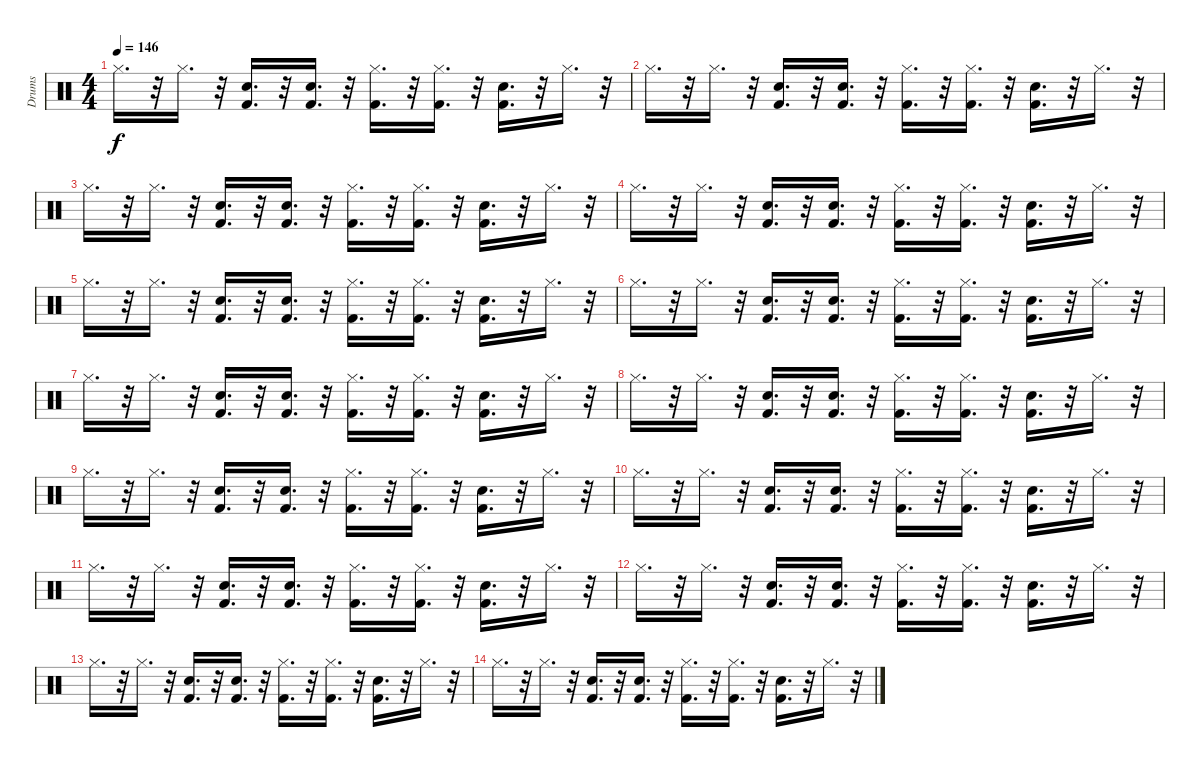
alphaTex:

\track ("Drums " "Drums ") {instrument percussion}
\staff {score}
\articulation defaults
\ts (4 4)
\tempo 146
\clef neutral
\ks c "Hi-Hat (closed)".16{d dy f}
r.32 "Hi-Hat (closed)".16{d} r.32 ("Snare (hit) 2" "Kick (hit) 2").16{d} r.32 ("Snare (hit) 2" "Kick (hit) 2").16{d} r.32 ("Kick (hit) 2" "Hi-Hat (closed)").16{d} r.32 ("Kick (hit) 2" "Hi-Hat (closed)").16{d} r.32 ("Snare (hit) 2" "Kick (hit) 2").16{d} r.32 "Hi-Hat (closed)".16{d} r.32 |
"Hi-Hat (closed)".16{d} r.32 "Hi-Hat (closed)".16{d} r.32 ("Snare (hit) 2" "Kick (hit) 2").16{d} r.32 ("Snare (hit) 2" "Kick (hit) 2").16{d} r.32 ("Kick (hit) 2" "Hi-Hat (closed)").16{d} r.32 ("Kick (hit) 2" "Hi-Hat (closed)").16{d} r.32 ("Snare (hit) 2" "Kick (hit) 2").16{d} r.32 "Hi-Hat (closed)".16{d} r.32 |
"Hi-Hat (closed)".16{d} r.32 "Hi-Hat (closed)".16{d} r.32 ("Snare (hit) 2" "Kick (hit) 2").16{d} r.32 ("Snare (hit) 2" "Kick (hit) 2").16{d} r.32 ("Kick (hit) 2" "Hi-Hat (closed)").16{d} r.32 ("Kick (hit) 2" "Hi-Hat (closed)").16{d} r.32 ("Snare (hit) 2" "Kick (hit) 2").16{d} r.32 "Hi-Hat (closed)".16{d} r.32 |
"Hi-Hat (closed)".16{d} r.32 "Hi-Hat (closed)".16{d} r.32 ("Snare (hit) 2" "Kick (hit) 2").16{d} r.32 ("Snare (hit) 2" "Kick (hit) 2").16{d} r.32 ("Kick (hit) 2" "Hi-Hat (closed)").16{d} r.32 ("Kick (hit) 2" "Hi-Hat (closed)").16{d} r.32 ("Snare (hit) 2" "Kick (hit) 2").16{d} r.32 "Hi-Hat (closed)".16{d} r.32 |
"Hi-Hat (closed)".16{d} r.32 "Hi-Hat (closed)".16{d} r.32 ("Snare (hit) 2" "Kick (hit) 2").16{d} r.32 ("Snare (hit) 2" "Kick (hit) 2").16{d} r.32 ("Kick (hit) 2" "Hi-Hat (closed)").16{d} r.32 ("Kick (hit) 2" "Hi-Hat (closed)").16{d} r.32 ("Snare (hit) 2" "Kick (hit) 2").16{d} r.32 "Hi-Hat (closed)".16{d} r.32 |
"Hi-Hat (closed)".16{d} r.32 "Hi-Hat (closed)".16{d} r.32 ("Snare (hit) 2" "Kick (hit) 2").16{d} r.32 ("Snare (hit) 2" "Kick (hit) 2").16{d} r.32 ("Kick (hit) 2" "Hi-Hat (closed)").16{d} r.32 ("Kick (hit) 2" "Hi-Hat (closed)").16{d} r.32 ("Snare (hit) 2" "Kick (hit) 2").16{d} r.32 "Hi-Hat (closed)".16{d} r.32 |
"Hi-Hat (closed)".16{d} r.32 "Hi-Hat (closed)".16{d} r.32 ("Snare (hit) 2" "Kick (hit) 2").16{d} r.32 ("Snare (hit) 2" "Kick (hit) 2").16{d} r.32 ("Kick (hit) 2" "Hi-Hat (closed)").16{d} r.32 ("Kick (hit) 2" "Hi-Hat (closed)").16{d} r.32 ("Snare (hit) 2" "Kick (hit) 2").16{d} r.32 "Hi-Hat (closed)".16{d} r.32 |
"Hi-Hat (closed)".16{d} r.32 "Hi-Hat (closed)".16{d} r.32 ("Snare (hit) 2" "Kick (hit) 2").16{d} r.32 ("Snare (hit) 2" "Kick (hit) 2").16{d} r.32 ("Kick (hit) 2" "Hi-Hat (closed)").16{d} r.32 ("Kick (hit) 2" "Hi-Hat (closed)").16{d} r.32 ("Snare (hit) 2" "Kick (hit) 2").16{d} r.32 "Hi-Hat (closed)".16{d} r.32 |
"Hi-Hat (closed)".16{d} r.32 "Hi-Hat (closed)".16{d} r.32 ("Snare (hit) 2" "Kick (hit) 2").16{d} r.32 ("Snare (hit) 2" "Kick (hit) 2").16{d} r.32 ("Kick (hit) 2" "Hi-Hat (closed)").16{d} r.32 ("Kick (hit) 2" "Hi-Hat (closed)").16{d} r.32 ("Snare (hit) 2" "Kick (hit) 2").16{d} r.32 "Hi-Hat (closed)".16{d} r.32 |
"Hi-Hat (closed)".16{d} r.32 "Hi-Hat (closed)".16{d} r.32 ("Snare (hit) 2" "Kick (hit) 2").16{d} r.32 ("Snare (hit) 2" "Kick (hit) 2").16{d} r.32 ("Kick (hit) 2" "Hi-Hat (closed)").16{d} r.32 ("Kick (hit) 2" "Hi-Hat (closed)").16{d} r.32 ("Snare (hit) 2" "Kick (hit) 2").16{d} r.32 "Hi-Hat (closed)".16{d} r.32 |
"Hi-Hat (closed)".16{d} r.32 "Hi-Hat (closed)".16{d} r.32 ("Snare (hit) 2" "Kick (hit) 2").16{d} r.32 ("Snare (hit) 2" "Kick (hit) 2").16{d} r.32 ("Kick (hit) 2" "Hi-Hat (closed)").16{d} r.32 ("Kick (hit) 2" "Hi-Hat (closed)").16{d} r.32 ("Snare (hit) 2" "Kick (hit) 2").16{d} r.32 "Hi-Hat (closed)".16{d} r.32 |
"Hi-Hat (closed)".16{d} r.32 "Hi-Hat (closed)".16{d} r.32 ("Snare (hit) 2" "Kick (hit) 2").16{d} r.32 ("Snare (hit) 2" "Kick (hit) 2").16{d} r.32 ("Kick (hit) 2" "Hi-Hat (closed)").16{d} r.32 ("Kick (hit) 2" "Hi-Hat (closed)").16{d} r.32 ("Snare (hit) 2" "Kick (hit) 2").16{d} r.32 "Hi-Hat (closed)".16{d} r.32 |
"Hi-Hat (closed)".16{d} r.32 "Hi-Hat (closed)".16{d} r.32 ("Snare (hit) 2" "Kick (hit) 2").16{d} r.32 ("Snare (hit) 2" "Kick (hit) 2").16{d} r.32 ("Kick (hit) 2" "Hi-Hat (closed)").16{d} r.32 ("Kick (hit) 2" "Hi-Hat (closed)").16{d} r.32 ("Snare (hit) 2" "Kick (hit) 2").16{d} r.32 "Hi-Hat (closed)".16{d} r.32 |
"Hi-Hat (closed)".16{d} r.32 "Hi-Hat (closed)".16{d} r.32 ("Snare (hit) 2" "Kick (hit) 2").16{d} r.32 ("Snare (hit) 2" "Kick (hit) 2").16{d} r.32 ("Kick (hit) 2" "Hi-Hat (closed)").16{d} r.32 ("Kick (hit) 2" "Hi-Hat (closed)").16{d} r.32 ("Snare (hit) 2" "Kick (hit) 2").16{d} r.32 "Hi-Hat (closed)".16{d} r.32
